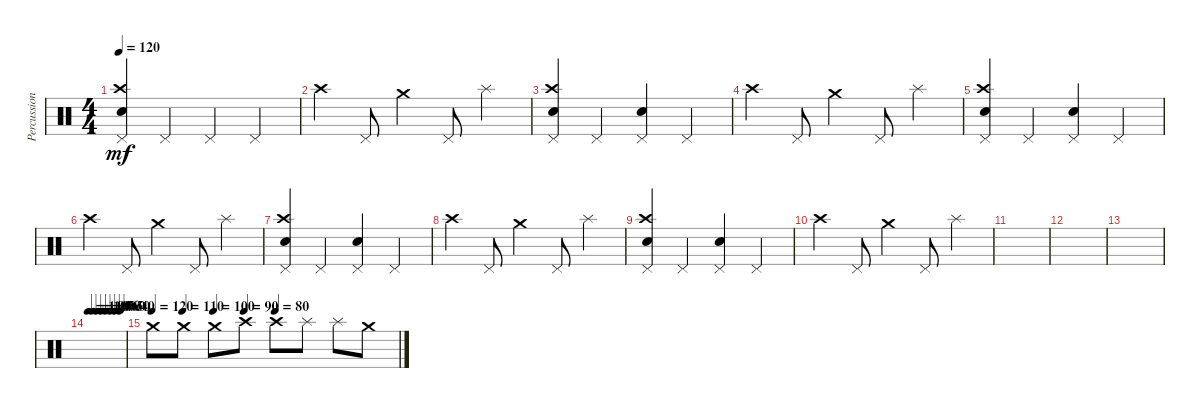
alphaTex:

\track ("Percussion" "Percussion") {instrument percussion}
\staff {score}
\articulation defaults
\ts (4 4)
\tempo 120
\clef neutral
\ks c
("Pedal Hi-Hat (hit)" "Crash high (hit)" "Snare (hit) 2").4{dy mf} "Pedal Hi-Hat (hit)".4 "Pedal Hi-Hat (hit)".4 "Pedal Hi-Hat (hit)".4 |
"Crash high (hit)".4 "Pedal Hi-Hat (hit)".8 "Crash medium (hit)".4 "Pedal Hi-Hat (hit)".8 "Splash (hit)".4 |
("Pedal Hi-Hat (hit)" "Crash high (hit)" "Snare (hit) 2").4 "Pedal Hi-Hat (hit)".4 ("Pedal Hi-Hat (hit)" "Hand Clap (hit)").4 "Pedal Hi-Hat (hit)".4 |
"Crash high (hit)".4 "Pedal Hi-Hat (hit)".8 "Crash medium (hit)".4 "Pedal Hi-Hat (hit)".8 "Splash (hit)".4 |
("Pedal Hi-Hat (hit)" "Crash high (hit)" "Snare (hit) 2").4 "Pedal Hi-Hat (hit)".4 ("Pedal Hi-Hat (hit)" "Hand Clap (hit)").4 "Pedal Hi-Hat (hit)".4 |
"Crash high (hit)".4 "Pedal Hi-Hat (hit)".8 "Crash medium (hit)".4 "Pedal Hi-Hat (hit)".8 "Splash (hit)".4 |
("Pedal Hi-Hat (hit)" "Crash high (hit)" "Snare (hit) 2").4 "Pedal Hi-Hat (hit)".4 ("Pedal Hi-Hat (hit)" "Hand Clap (hit)").4 "Pedal Hi-Hat (hit)".4 |
"Crash high (hit)".4 "Pedal Hi-Hat (hit)".8 "Crash medium (hit)".4 "Pedal Hi-Hat (hit)".8 "Splash (hit)".4 |
("Pedal Hi-Hat (hit)" "Crash high (hit)" "Snare (hit) 2").4 "Pedal Hi-Hat (hit)".4 ("Pedal Hi-Hat (hit)" "Hand Clap (hit)").4 "Pedal Hi-Hat (hit)".4 |
"Crash high (hit)".4 "Pedal Hi-Hat (hit)".8 "Crash medium (hit)".4 "Pedal Hi-Hat (hit)".8 "Splash (hit)".4 |
|
|
|
\tempo 110
\tempo (100 0.125)
\tempo (90 0.25)
\tempo (80 0.375)
\tempo (70 0.5)
\tempo (60 0.625)
\tempo (50 0.75)
\tempo (40 0.875)
|
\tempo 120
\tempo (110 0.125)
\tempo (100 0.25)
\tempo (90 0.375)
\tempo (80 0.5)
"Crash medium (hit)".8 "Crash medium (hit)".8 "Crash medium (hit)".8 "Crash high (hit)".8 "Crash high (hit)".8 "Splash (hit)".8 "Splash (hit)".8 "Crash medium (hit)".8
